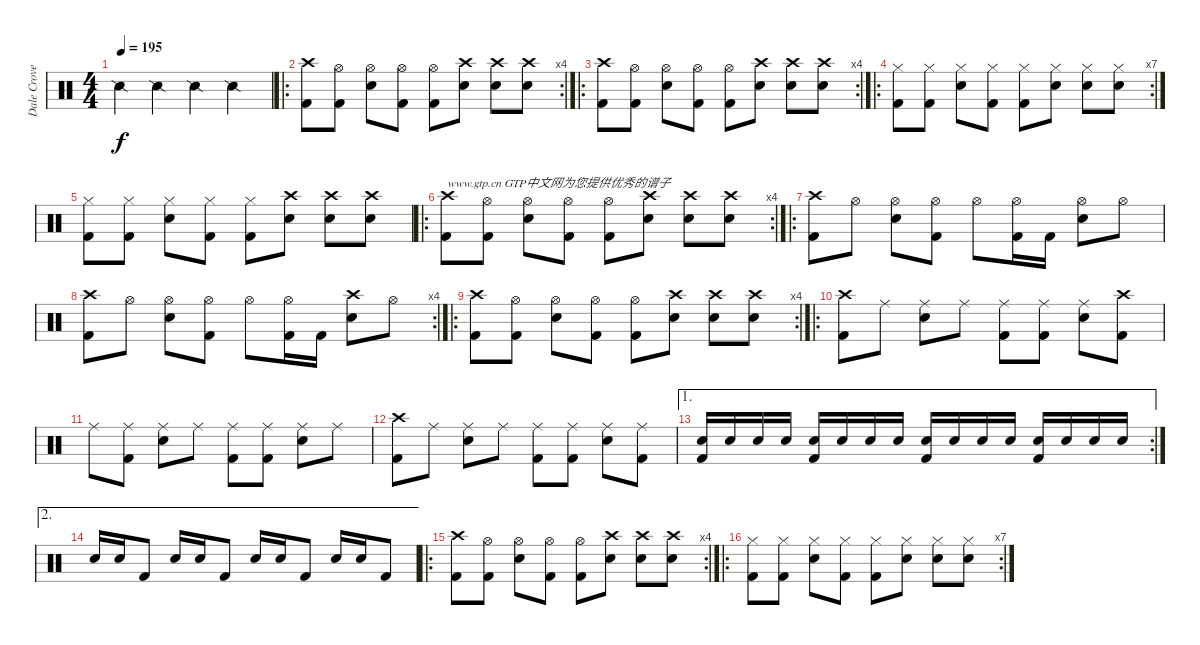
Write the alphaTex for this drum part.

\track ("Dale Crover" "Dale Crove") {instrument percussion}
\staff {score}
\articulation defaults
\ts (4 4)
\tempo 195
\clef neutral
\ks c "Snare (side stick) 2".4{dy f} "Snare (side stick) 2".4 "Snare (side stick) 2".4 "Snare (side stick) 2".4
|
\ro
\rc 4
("Crash high (hit)" "Kick (hit) 2").8 ("Hi-Hat (open)" "Kick (hit) 2").8 ("Hi-Hat (open)" "Electric Snare (hit)").8 ("Hi-Hat (open)" "Kick (hit) 2").8 ("Hi-Hat (open)" "Kick (hit) 2").8 ("Crash high (hit)" "Electric Snare (hit)").8 ("Crash high (hit)" "Electric Snare (hit)").8 ("Crash high (hit)" "Electric Snare (hit)").8 |
\ro
\rc 4
("Crash high (hit)" "Kick (hit) 2").8 ("Hi-Hat (open)" "Kick (hit) 2").8 ("Hi-Hat (open)" "Electric Snare (hit)").8 ("Hi-Hat (open)" "Kick (hit) 2").8 ("Hi-Hat (open)" "Kick (hit) 2").8 ("Crash high (hit)" "Electric Snare (hit)").8 ("Crash high (hit)" "Electric Snare (hit)").8 ("Crash high (hit)" "Electric Snare (hit)").8 |
\ro
\rc 7
("Hi-Hat (closed)" "Kick (hit) 2").8 ("Hi-Hat (closed)" "Kick (hit) 2").8 ("Hi-Hat (closed)" "Electric Snare (hit)").8 ("Hi-Hat (closed)" "Kick (hit) 2").8 ("Hi-Hat (closed)" "Kick (hit) 2").8 ("Hi-Hat (closed)" "Electric Snare (hit)").8 ("Hi-Hat (closed)" "Electric Snare (hit)").8 ("Hi-Hat (closed)" "Electric Snare (hit)").8 |
("Hi-Hat (closed)" "Kick (hit) 2").8 ("Hi-Hat (closed)" "Kick (hit) 2").8 ("Hi-Hat (closed)" "Electric Snare (hit)").8 ("Hi-Hat (closed)" "Kick (hit) 2").8 ("Hi-Hat (closed)" "Kick (hit) 2").8 ("Crash high (hit)" "Electric Snare (hit)").8 ("Crash high (hit)" "Electric Snare (hit)").8 ("Crash high (hit)" "Electric Snare (hit)").8 |
\ro
\rc 4
("Crash high (hit)" "Kick (hit) 2").8{txt "www.gtp.cn GTP中文网为您提供优秀的谱子"} ("Hi-Hat (open)" "Kick (hit) 2").8 ("Hi-Hat (open)" "Electric Snare (hit)").8 ("Hi-Hat (open)" "Kick (hit) 2").8 ("Hi-Hat (open)" "Kick (hit) 2").8 ("Crash high (hit)" "Electric Snare (hit)").8 ("Crash high (hit)" "Electric Snare (hit)").8 ("Crash high (hit)" "Electric Snare (hit)").8 |
\ro
("Crash high (hit)" "Kick (hit) 2").8 "Hi-Hat (open)".8 ("Hi-Hat (open)" "Electric Snare (hit)").8 ("Hi-Hat (open)" "Kick (hit) 2").8 "Hi-Hat (open)".8 ("Hi-Hat (open)" "Kick (hit) 2").16 "Kick (hit) 2".16 ("Hi-Hat (open)" "Electric Snare (hit)").8 "Hi-Hat (open)".8 |
\rc 4
("Crash high (hit)" "Kick (hit) 2").8 "Hi-Hat (open)".8 ("Hi-Hat (open)" "Electric Snare (hit)").8 ("Hi-Hat (open)" "Kick (hit) 2").8 "Hi-Hat (open)".8 ("Hi-Hat (open)" "Kick (hit) 2").16 "Kick (hit) 2".16 ("Crash high (hit)" "Electric Snare (hit)").8 "Hi-Hat (open)".8 |
\ro
\rc 4
("Crash high (hit)" "Kick (hit) 2").8 ("Hi-Hat (open)" "Kick (hit) 2").8 ("Hi-Hat (open)" "Electric Snare (hit)").8 ("Hi-Hat (open)" "Kick (hit) 2").8 ("Hi-Hat (open)" "Kick (hit) 2").8 ("Crash high (hit)" "Electric Snare (hit)").8 ("Crash high (hit)" "Electric Snare (hit)").8 ("Crash high (hit)" "Electric Snare (hit)").8 |
\ro
("Crash high (hit)" "Kick (hit) 2").8 "Ride (middle)".8 ("Ride (middle)" "Electric Snare (hit)").8 "Ride (middle)".8 ("Ride (middle)" "Kick (hit) 2").8 ("Ride (middle)" "Kick (hit) 2").8 ("Ride (middle)" "Electric Snare (hit)").8 ("Crash high (hit)" "Kick (hit) 2").8 |
"Ride (middle)".8 ("Ride (middle)" "Kick (hit) 2").8 ("Ride (middle)" "Electric Snare (hit)").8 "Ride (middle)".8 ("Ride (middle)" "Kick (hit) 2").8 ("Ride (middle)" "Kick (hit) 2").8 ("Ride (middle)" "Electric Snare (hit)").8 "Ride (middle)".8 |
("Crash high (hit)" "Kick (hit) 2").8 "Ride (middle)".8 ("Ride (middle)" "Electric Snare (hit)").8 "Ride (middle)".8 ("Ride (middle)" "Kick (hit) 2").8 ("Ride (middle)" "Kick (hit) 2").8 ("Ride (middle)" "Electric Snare (hit)").8 ("Ride (middle)" "Kick (hit) 2").8 |
\ae 1
\rc 2
("Electric Snare (hit)" "Kick (hit) 2").16 "Electric Snare (hit)".16 "Electric Snare (hit)".16 "Electric Snare (hit)".16 ("Electric Snare (hit)" "Kick (hit) 2").16 "Electric Snare (hit)".16 "Electric Snare (hit)".16 "Electric Snare (hit)".16 ("Electric Snare (hit)" "Kick (hit) 2").16 "Electric Snare (hit)".16 "Electric Snare (hit)".16 "Electric Snare (hit)".16 ("Electric Snare (hit)" "Kick (hit) 2").16 "Electric Snare (hit)".16 "Electric Snare (hit)".16 "Electric Snare (hit)".16 |
\ae 2 "Electric Snare (hit)".16 "Electric Snare (hit)".16 "Kick (hit) 2".8 "Electric Snare (hit)".16 "Electric Snare (hit)".16 "Kick (hit) 2".8 "Electric Snare (hit)".16 "Electric Snare (hit)".16 "Kick (hit) 2".8 "Electric Snare (hit)".16 "Electric Snare (hit)".16 "Kick (hit) 2".8
|
\ro
\rc 4
("Crash high (hit)" "Kick (hit) 2").8 ("Hi-Hat (open)" "Kick (hit) 2").8 ("Hi-Hat (open)" "Electric Snare (hit)").8 ("Hi-Hat (open)" "Kick (hit) 2").8 ("Hi-Hat (open)" "Kick (hit) 2").8 ("Crash high (hit)" "Electric Snare (hit)").8 ("Crash high (hit)" "Electric Snare (hit)").8 ("Crash high (hit)" "Electric Snare (hit)").8 |
\ro
\rc 7
("Hi-Hat (closed)" "Kick (hit) 2").8 ("Hi-Hat (closed)" "Kick (hit) 2").8 ("Hi-Hat (closed)" "Electric Snare (hit)").8 ("Hi-Hat (closed)" "Kick (hit) 2").8 ("Hi-Hat (closed)" "Kick (hit) 2").8 ("Hi-Hat (closed)" "Electric Snare (hit)").8 ("Hi-Hat (closed)" "Electric Snare (hit)").8 ("Hi-Hat (closed)" "Electric Snare (hit)").8
